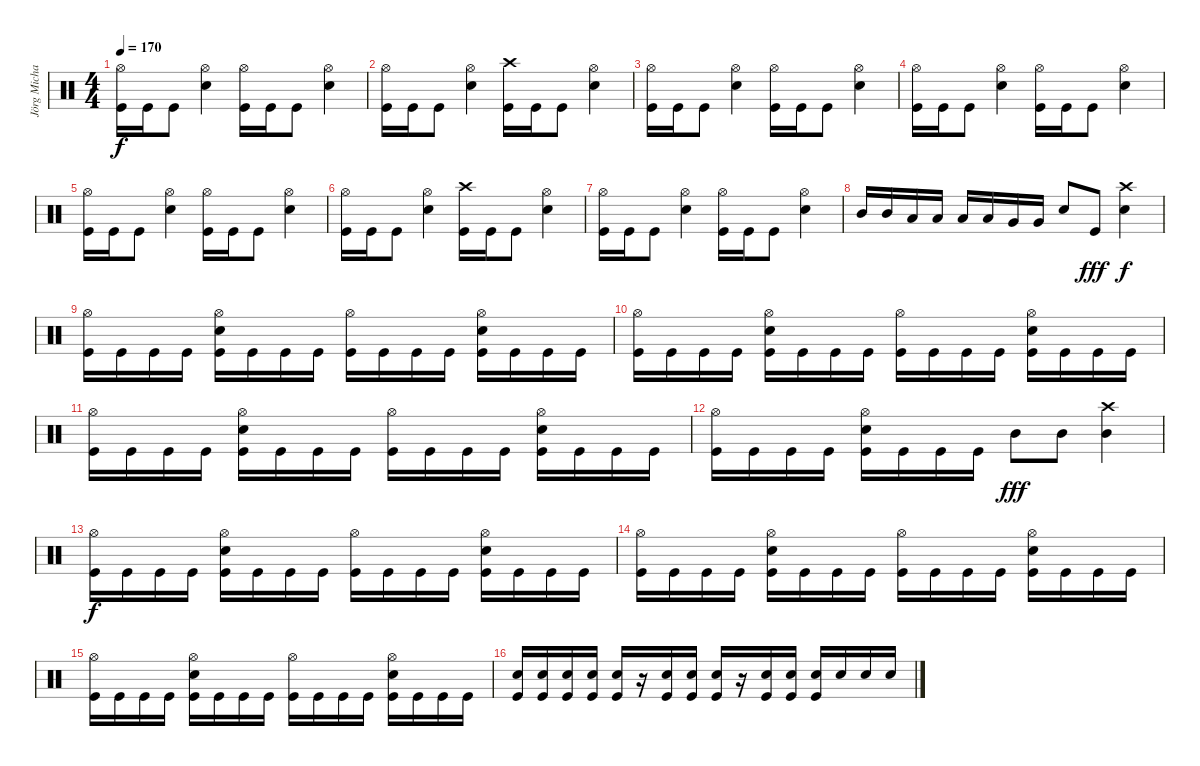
\track ("Jörg Michael" "Jörg Micha") {instrument percussion}
\staff {score}
\articulation defaults
\ts (4 4)
\tempo 170
\clef neutral
\ks c
("Hi-Hat (open)" "Kick (hit)").16{dy f} "Kick (hit)".16 "Kick (hit)".8 ("Hi-Hat (open)" "Electric Snare (hit)").4 ("Hi-Hat (open)" "Kick (hit)").16 "Kick (hit)".16 "Kick (hit)".8 ("Hi-Hat (open)" "Electric Snare (hit)").4 |
("Hi-Hat (open)" "Kick (hit)").16 "Kick (hit)".16 "Kick (hit)".8 ("Hi-Hat (open)" "Electric Snare (hit)").4 ("Crash high (hit)" "Kick (hit)").16 "Kick (hit)".16 "Kick (hit)".8 ("Hi-Hat (open)" "Electric Snare (hit)").4 |
("Hi-Hat (open)" "Kick (hit)").16 "Kick (hit)".16 "Kick (hit)".8 ("Hi-Hat (open)" "Electric Snare (hit)").4 ("Hi-Hat (open)" "Kick (hit)").16 "Kick (hit)".16 "Kick (hit)".8 ("Hi-Hat (open)" "Electric Snare (hit)").4 |
("Hi-Hat (open)" "Kick (hit)").16 "Kick (hit)".16 "Kick (hit)".8 ("Hi-Hat (open)" "Electric Snare (hit)").4 ("Hi-Hat (open)" "Kick (hit)").16 "Kick (hit)".16 "Kick (hit)".8 ("Hi-Hat (open)" "Electric Snare (hit)").4 |
("Hi-Hat (open)" "Kick (hit)").16 "Kick (hit)".16 "Kick (hit)".8 ("Hi-Hat (open)" "Electric Snare (hit)").4 ("Hi-Hat (open)" "Kick (hit)").16 "Kick (hit)".16 "Kick (hit)".8 ("Hi-Hat (open)" "Electric Snare (hit)").4 |
("Hi-Hat (open)" "Kick (hit)").16 "Kick (hit)".16 "Kick (hit)".8 ("Hi-Hat (open)" "Electric Snare (hit)").4 ("Crash high (hit)" "Kick (hit)").16 "Kick (hit)".16 "Kick (hit)".8 ("Hi-Hat (open)" "Electric Snare (hit)").4 |
("Hi-Hat (open)" "Kick (hit)").16 "Kick (hit)".16 "Kick (hit)".8 ("Hi-Hat (open)" "Electric Snare (hit)").4 ("Hi-Hat (open)" "Kick (hit)").16 "Kick (hit)".16 "Kick (hit)".8 ("Hi-Hat (open)" "Electric Snare (hit)").4 |
"Mid Tom (hit)".16 "Mid Tom (hit)".16 "Low Tom (hit)".16 "Low Tom (hit)".16 "Low Floor Tom (hit)".16 "Low Floor Tom (hit)".16 "Very Low Tom (hit)".16 "Very Low Tom (hit)".16 "Electric Snare (hit)".8 "Kick (hit)".8{dy fff} ("Crash high (hit)" "Electric Snare (hit)").4{dy f} |
("Hi-Hat (open)" "Kick (hit)").16 "Kick (hit)".16 "Kick (hit)".16 "Kick (hit)".16 ("Hi-Hat (open)" "Electric Snare (hit)" "Kick (hit)").16 "Kick (hit)".16 "Kick (hit)".16 "Kick (hit)".16 ("Hi-Hat (open)" "Kick (hit)").16 "Kick (hit)".16 "Kick (hit)".16 "Kick (hit)".16 ("Hi-Hat (open)" "Electric Snare (hit)" "Kick (hit)").16 "Kick (hit)".16 "Kick (hit)".16 "Kick (hit)".16 |
("Hi-Hat (open)" "Kick (hit)").16 "Kick (hit)".16 "Kick (hit)".16 "Kick (hit)".16 ("Hi-Hat (open)" "Electric Snare (hit)" "Kick (hit)").16 "Kick (hit)".16 "Kick (hit)".16 "Kick (hit)".16 ("Hi-Hat (open)" "Kick (hit)").16 "Kick (hit)".16 "Kick (hit)".16 "Kick (hit)".16 ("Hi-Hat (open)" "Electric Snare (hit)" "Kick (hit)").16 "Kick (hit)".16 "Kick (hit)".16 "Kick (hit)".16 |
("Hi-Hat (open)" "Kick (hit)").16 "Kick (hit)".16 "Kick (hit)".16 "Kick (hit)".16 ("Hi-Hat (open)" "Electric Snare (hit)" "Kick (hit)").16 "Kick (hit)".16 "Kick (hit)".16 "Kick (hit)".16 ("Hi-Hat (open)" "Kick (hit)").16 "Kick (hit)".16 "Kick (hit)".16 "Kick (hit)".16 ("Hi-Hat (open)" "Electric Snare (hit)" "Kick (hit)").16 "Kick (hit)".16 "Kick (hit)".16 "Kick (hit)".16 |
("Hi-Hat (open)" "Kick (hit)").16 "Kick (hit)".16 "Kick (hit)".16 "Kick (hit)".16 ("Hi-Hat (open)" "Electric Snare (hit)" "Kick (hit)").16 "Kick (hit)".16 "Kick (hit)".16 "Kick (hit)".16 "Mid Tom (hit)".8{dy fff} "Mid Tom (hit)".8 ("Crash high (hit)" "Mid Tom (hit)").4 |
("Hi-Hat (open)" "Kick (hit)").16{dy f} "Kick (hit)".16 "Kick (hit)".16 "Kick (hit)".16 ("Hi-Hat (open)" "Electric Snare (hit)" "Kick (hit)").16 "Kick (hit)".16 "Kick (hit)".16 "Kick (hit)".16 ("Hi-Hat (open)" "Kick (hit)").16 "Kick (hit)".16 "Kick (hit)".16 "Kick (hit)".16 ("Hi-Hat (open)" "Electric Snare (hit)" "Kick (hit)").16 "Kick (hit)".16 "Kick (hit)".16 "Kick (hit)".16 |
("Hi-Hat (open)" "Kick (hit)").16 "Kick (hit)".16 "Kick (hit)".16 "Kick (hit)".16 ("Hi-Hat (open)" "Electric Snare (hit)" "Kick (hit)").16 "Kick (hit)".16 "Kick (hit)".16 "Kick (hit)".16 ("Hi-Hat (open)" "Kick (hit)").16 "Kick (hit)".16 "Kick (hit)".16 "Kick (hit)".16 ("Hi-Hat (open)" "Electric Snare (hit)" "Kick (hit)").16 "Kick (hit)".16 "Kick (hit)".16 "Kick (hit)".16 |
("Hi-Hat (open)" "Kick (hit)").16 "Kick (hit)".16 "Kick (hit)".16 "Kick (hit)".16 ("Hi-Hat (open)" "Electric Snare (hit)" "Kick (hit)").16 "Kick (hit)".16 "Kick (hit)".16 "Kick (hit)".16 ("Hi-Hat (open)" "Kick (hit)").16 "Kick (hit)".16 "Kick (hit)".16 "Kick (hit)".16 ("Hi-Hat (open)" "Electric Snare (hit)" "Kick (hit)").16 "Kick (hit)".16 "Kick (hit)".16 "Kick (hit)".16 |
("Electric Snare (hit)" "Kick (hit)").16 ("Electric Snare (hit)" "Kick (hit)").16 ("Electric Snare (hit)" "Kick (hit)").16 ("Electric Snare (hit)" "Kick (hit)").16 ("Electric Snare (hit)" "Kick (hit)").16 r.16 ("Electric Snare (hit)" "Kick (hit)").16 ("Electric Snare (hit)" "Kick (hit)").16 ("Electric Snare (hit)" "Kick (hit)").16 r.16 ("Electric Snare (hit)" "Kick (hit)").16 ("Electric Snare (hit)" "Kick (hit)").16 ("Electric Snare (hit)" "Kick (hit)").16 "Electric Snare (hit)".16 "Electric Snare (hit)".16 "Electric Snare (hit)".16
